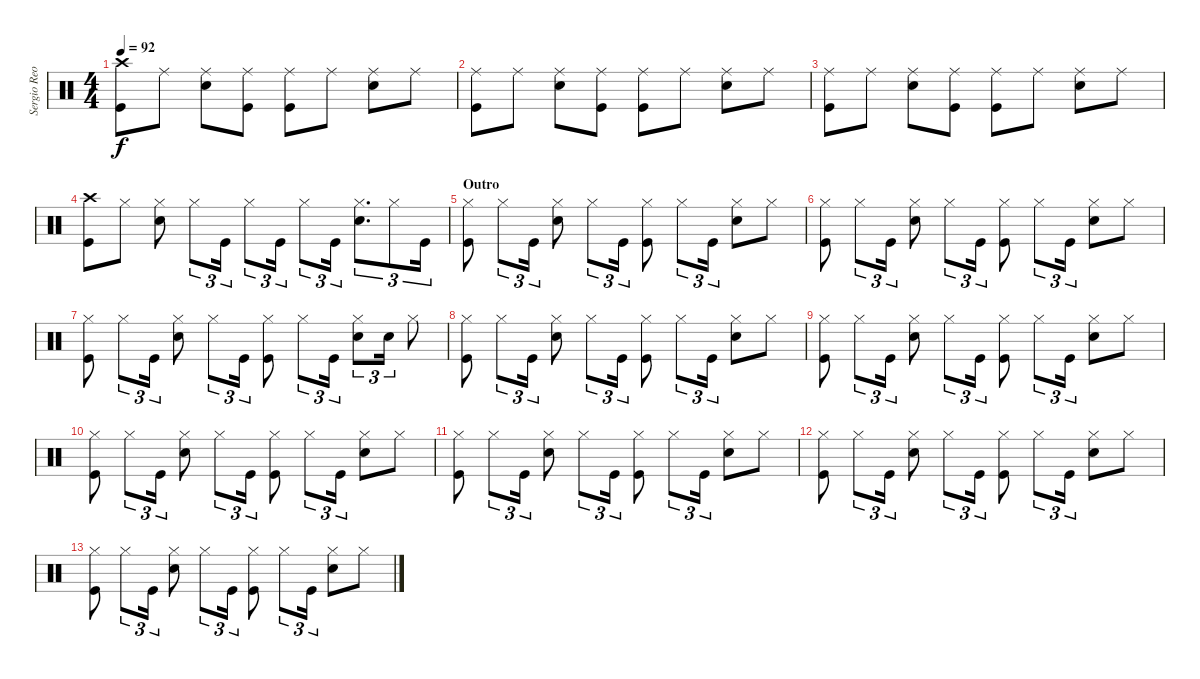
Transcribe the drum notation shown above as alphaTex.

\track ("Sergio Reoli" "Sergio Reo") {instrument percussion}
\staff {score}
\articulation defaults
\ts (4 4)
\tempo 92
\clef neutral
\ks c
("Crash high (hit)" "Kick (hit)").8{dy f} "Ride (middle)".8 ("Ride (middle)" "Electric Snare (hit)").8 ("Ride (middle)" "Kick (hit)").8 ("Ride (middle)" "Kick (hit)").8 "Ride (middle)".8 ("Ride (middle)" "Electric Snare (hit)").8 "Ride (middle)".8 |
("Ride (middle)" "Kick (hit)").8 "Ride (middle)".8 ("Ride (middle)" "Electric Snare (hit)").8 ("Ride (middle)" "Kick (hit)").8 ("Ride (middle)" "Kick (hit)").8 "Ride (middle)".8 ("Ride (middle)" "Electric Snare (hit)").8 "Ride (middle)".8 |
("Ride (middle)" "Kick (hit)").8 "Ride (middle)".8 ("Ride (middle)" "Electric Snare (hit)").8 ("Ride (middle)" "Kick (hit)").8 ("Ride (middle)" "Kick (hit)").8 "Ride (middle)".8 ("Ride (middle)" "Electric Snare (hit)").8 "Ride (middle)".8 |
("Crash high (hit)" "Kick (hit)").8 "Hi-Hat (closed)".8 ("Hi-Hat (closed)" "Electric Snare (hit)").8 "Hi-Hat (closed)".8{tu (3 2)} "Kick (hit)".16{tu (3 2)} "Hi-Hat (closed)".8{tu (3 2)} "Kick (hit)".16{tu (3 2)} "Hi-Hat (closed)".8{tu (3 2)} "Kick (hit)".16{tu (3 2)} ("Hi-Hat (closed)" "Electric Snare (hit)").8{d tu (3 2)} "Hi-Hat (closed)".8{tu (3 2)} "Kick (hit)".16{tu (3 2)} |
\section ("" "Outro")
("Hi-Hat (closed)" "Kick (hit)").8 "Hi-Hat (closed)".8{tu (3 2)} "Kick (hit)".16{tu (3 2)} ("Hi-Hat (closed)" "Electric Snare (hit)").8 "Hi-Hat (closed)".8{tu (3 2)} "Kick (hit)".16{tu (3 2)} ("Hi-Hat (closed)" "Kick (hit)").8 "Hi-Hat (closed)".8{tu (3 2)} "Kick (hit)".16{tu (3 2)} ("Hi-Hat (closed)" "Electric Snare (hit)").8 "Hi-Hat (closed)".8 |
("Hi-Hat (closed)" "Kick (hit)").8 "Hi-Hat (closed)".8{tu (3 2)} "Kick (hit)".16{tu (3 2)} ("Hi-Hat (closed)" "Electric Snare (hit)").8 "Hi-Hat (closed)".8{tu (3 2)} "Kick (hit)".16{tu (3 2)} ("Hi-Hat (closed)" "Kick (hit)").8 "Hi-Hat (closed)".8{tu (3 2)} "Kick (hit)".16{tu (3 2)} ("Hi-Hat (closed)" "Electric Snare (hit)").8 "Hi-Hat (closed)".8 |
("Hi-Hat (closed)" "Kick (hit)").8 "Hi-Hat (closed)".8{tu (3 2)} "Kick (hit)".16{tu (3 2)} ("Hi-Hat (closed)" "Electric Snare (hit)").8 "Hi-Hat (closed)".8{tu (3 2)} "Kick (hit)".16{tu (3 2)} ("Hi-Hat (closed)" "Kick (hit)").8 "Hi-Hat (closed)".8{tu (3 2)} "Kick (hit)".16{tu (3 2)} ("Hi-Hat (closed)" "Electric Snare (hit)").8{tu (3 2)} "Electric Snare (hit)".16{tu (3 2)} "Hi-Hat (closed)".8 |
("Hi-Hat (closed)" "Kick (hit)").8 "Hi-Hat (closed)".8{tu (3 2)} "Kick (hit)".16{tu (3 2)} ("Hi-Hat (closed)" "Electric Snare (hit)").8 "Hi-Hat (closed)".8{tu (3 2)} "Kick (hit)".16{tu (3 2)} ("Hi-Hat (closed)" "Kick (hit)").8 "Hi-Hat (closed)".8{tu (3 2)} "Kick (hit)".16{tu (3 2)} ("Hi-Hat (closed)" "Electric Snare (hit)").8 "Hi-Hat (closed)".8 |
("Hi-Hat (closed)" "Kick (hit)").8 "Hi-Hat (closed)".8{tu (3 2)} "Kick (hit)".16{tu (3 2)} ("Hi-Hat (closed)" "Electric Snare (hit)").8 "Hi-Hat (closed)".8{tu (3 2)} "Kick (hit)".16{tu (3 2)} ("Hi-Hat (closed)" "Kick (hit)").8 "Hi-Hat (closed)".8{tu (3 2)} "Kick (hit)".16{tu (3 2)} ("Hi-Hat (closed)" "Electric Snare (hit)").8 "Hi-Hat (closed)".8 |
("Hi-Hat (closed)" "Kick (hit)").8 "Hi-Hat (closed)".8{tu (3 2)} "Kick (hit)".16{tu (3 2)} ("Hi-Hat (closed)" "Electric Snare (hit)").8 "Hi-Hat (closed)".8{tu (3 2)} "Kick (hit)".16{tu (3 2)} ("Hi-Hat (closed)" "Kick (hit)").8 "Hi-Hat (closed)".8{tu (3 2)} "Kick (hit)".16{tu (3 2)} ("Hi-Hat (closed)" "Electric Snare (hit)").8 "Hi-Hat (closed)".8 |
("Hi-Hat (closed)" "Kick (hit)").8 "Hi-Hat (closed)".8{tu (3 2)} "Kick (hit)".16{tu (3 2)} ("Hi-Hat (closed)" "Electric Snare (hit)").8 "Hi-Hat (closed)".8{tu (3 2)} "Kick (hit)".16{tu (3 2)} ("Hi-Hat (closed)" "Kick (hit)").8 "Hi-Hat (closed)".8{tu (3 2)} "Kick (hit)".16{tu (3 2)} ("Hi-Hat (closed)" "Electric Snare (hit)").8 "Hi-Hat (closed)".8 |
("Hi-Hat (closed)" "Kick (hit)").8 "Hi-Hat (closed)".8{tu (3 2)} "Kick (hit)".16{tu (3 2)} ("Hi-Hat (closed)" "Electric Snare (hit)").8 "Hi-Hat (closed)".8{tu (3 2)} "Kick (hit)".16{tu (3 2)} ("Hi-Hat (closed)" "Kick (hit)").8 "Hi-Hat (closed)".8{tu (3 2)} "Kick (hit)".16{tu (3 2)} ("Hi-Hat (closed)" "Electric Snare (hit)").8 "Hi-Hat (closed)".8 |
("Hi-Hat (closed)" "Kick (hit)").8 "Hi-Hat (closed)".8{tu (3 2)} "Kick (hit)".16{tu (3 2)} ("Hi-Hat (closed)" "Electric Snare (hit)").8 "Hi-Hat (closed)".8{tu (3 2)} "Kick (hit)".16{tu (3 2)} ("Hi-Hat (closed)" "Kick (hit)").8 "Hi-Hat (closed)".8{tu (3 2)} "Kick (hit)".16{tu (3 2)} ("Hi-Hat (closed)" "Electric Snare (hit)").8 "Hi-Hat (closed)".8
